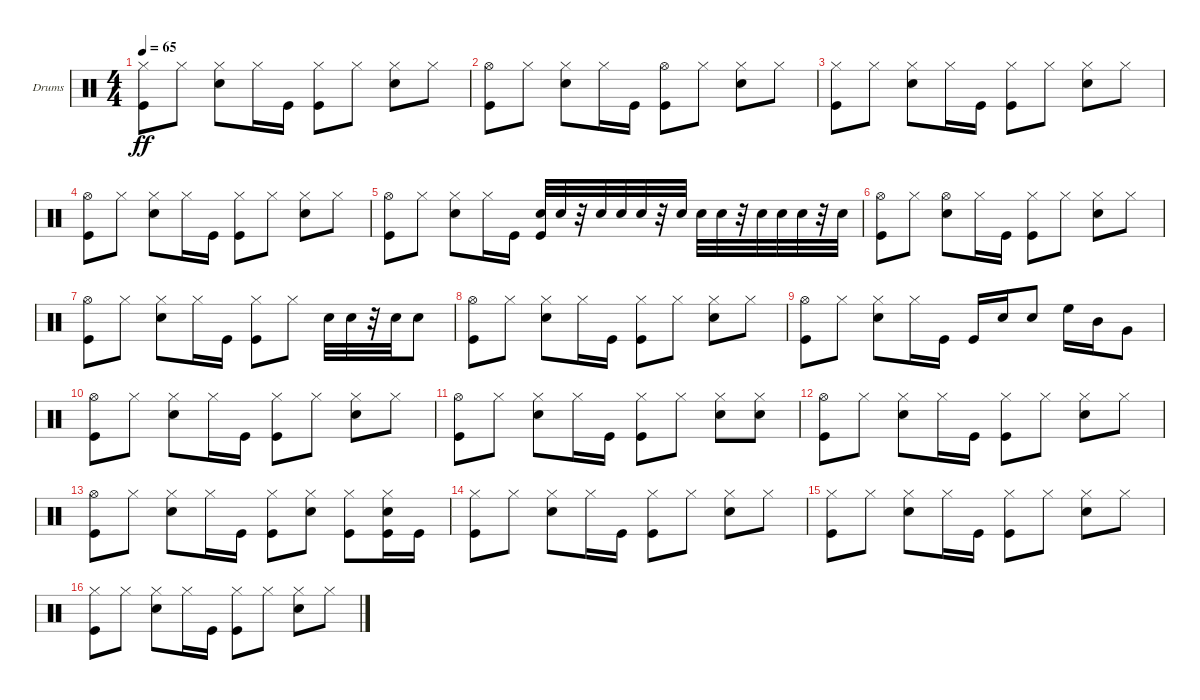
\bracketExtendMode groupsimilarinstruments
\firstSystemTrackNameOrientation horizontal
\otherSystemsTrackNameOrientation horizontal
\track ("Drumkit" "Drums") {instrument percussion}
\staff {score}
\articulation defaults
\ts (4 4)
\tempo 65
\clef neutral
\scale
0.333333
\ks c
("Hi-Hat (closed)" "Kick (hit)").8{dy ff} "Hi-Hat (closed)".8 ("Snare (hit) 2" "Hi-Hat (closed)").8 "Hi-Hat (closed)".16 "Kick (hit)".16 ("Hi-Hat (closed)" "Kick (hit)").8 "Hi-Hat (closed)".8 ("Hi-Hat (closed)" "Snare (hit) 2").8 "Hi-Hat (closed)".8 |
\scale
0.333333 ("Hi-Hat (open)" "Kick (hit)").8 "Hi-Hat (closed)".8 ("Snare (hit) 2" "Hi-Hat (closed)").8 "Hi-Hat (closed)".16 "Kick (hit)".16 ("Hi-Hat (open)" "Kick (hit)").8 "Hi-Hat (closed)".8 ("Hi-Hat (closed)" "Snare (hit) 2").8 "Hi-Hat (closed)".8 |
\scale
0.333333 ("Hi-Hat (closed)" "Kick (hit)").8 "Hi-Hat (closed)".8 ("Snare (hit) 2" "Hi-Hat (closed)").8 "Hi-Hat (closed)".16 "Kick (hit)".16 ("Hi-Hat (closed)" "Kick (hit)").8 "Hi-Hat (closed)".8 ("Hi-Hat (closed)" "Snare (hit) 2").8 "Hi-Hat (closed)".8 |
\scale
0.333333 ("Hi-Hat (open)" "Kick (hit)").8 "Hi-Hat (closed)".8 ("Snare (hit) 2" "Hi-Hat (closed)").8 "Hi-Hat (closed)".16 "Kick (hit)".16 ("Hi-Hat (closed)" "Kick (hit)").8 "Hi-Hat (closed)".8 ("Hi-Hat (closed)" "Snare (hit) 2").8 "Hi-Hat (closed)".8 |
\scale
0.333333 ("Hi-Hat (open)" "Kick (hit)").8 "Hi-Hat (closed)".8 ("Snare (hit) 2" "Hi-Hat (closed)").8 "Hi-Hat (closed)".16 "Kick (hit)".16 ("Snare (hit) 2" "Kick (hit)").32 "Snare (hit) 2".32 r.32 "Snare (hit) 2".32 "Snare (hit) 2".32 "Snare (hit) 2".32 r.32 "Snare (hit) 2".32 "Snare (hit) 2".32 "Snare (hit) 2".32 r.32 "Snare (hit) 2".32 "Snare (hit) 2".32 "Snare (hit) 2".32 r.32 "Snare (hit) 2".32 |
\scale
0.333333 ("Hi-Hat (open)" "Kick (hit)").8 "Hi-Hat (closed)".8 ("Hi-Hat (open)" "Snare (hit) 2").8 "Hi-Hat (closed)".16 "Kick (hit)".16 ("Hi-Hat (closed)" "Kick (hit)").8 "Hi-Hat (closed)".8 ("Hi-Hat (closed)" "Snare (hit) 2").8 "Hi-Hat (closed)".8 |
\scale
0.333333 ("Hi-Hat (open)" "Kick (hit)").8 "Hi-Hat (closed)".8 ("Snare (hit) 2" "Hi-Hat (closed)").8 "Hi-Hat (closed)".16 "Kick (hit)".16 ("Hi-Hat (closed)" "Kick (hit)").8 "Hi-Hat (closed)".8 "Snare (hit) 2".32 "Snare (hit) 2".32 r.32 "Snare (hit) 2".32 "Snare (hit) 2".8 |
\scale
0.333333 ("Hi-Hat (open)" "Kick (hit)").8 "Hi-Hat (closed)".8 ("Snare (hit) 2" "Hi-Hat (closed)").8 "Hi-Hat (closed)".16 "Kick (hit)".16 ("Hi-Hat (closed)" "Kick (hit)").8 "Hi-Hat (closed)".8 ("Hi-Hat (closed)" "Snare (hit) 2").8 "Hi-Hat (closed)".8 |
\scale
0.333333 ("Hi-Hat (open)" "Kick (hit)").8 "Hi-Hat (closed)".8 ("Snare (hit) 2" "Hi-Hat (closed)").8 "Hi-Hat (closed)".16 "Kick (hit)".16 "Kick (hit)".16 "Snare (hit) 2".16 "Snare (hit) 2".8 "High Floor Tom (hit)".16 "Mid Tom (hit)".16 "Very Low Tom (hit)".8 |
\scale
0.333333 ("Hi-Hat (open)" "Kick (hit)").8 "Hi-Hat (closed)".8 ("Snare (hit) 2" "Hi-Hat (closed)").8 "Hi-Hat (closed)".16 "Kick (hit)".16 ("Hi-Hat (closed)" "Kick (hit)").8 "Hi-Hat (closed)".8 ("Hi-Hat (closed)" "Snare (hit) 2").8 "Hi-Hat (closed)".8 |
\scale
0.333333 ("Hi-Hat (open)" "Kick (hit)").8 "Hi-Hat (closed)".8 ("Snare (hit) 2" "Hi-Hat (closed)").8 "Hi-Hat (closed)".16 "Kick (hit)".16 ("Hi-Hat (closed)" "Kick (hit)").8 "Hi-Hat (closed)".8 ("Hi-Hat (closed)" "Snare (hit) 2").8 ("Snare (hit) 2" "Hi-Hat (closed)").8 |
\scale
0.333333 ("Hi-Hat (open)" "Kick (hit)").8 "Hi-Hat (closed)".8 ("Snare (hit) 2" "Hi-Hat (closed)").8 "Hi-Hat (closed)".16 "Kick (hit)".16 ("Hi-Hat (closed)" "Kick (hit)").8 "Hi-Hat (closed)".8 ("Hi-Hat (closed)" "Snare (hit) 2").8 "Hi-Hat (closed)".8 |
\scale
0.333333 ("Hi-Hat (open)" "Kick (hit)").8 "Hi-Hat (closed)".8 ("Snare (hit) 2" "Hi-Hat (closed)").8 "Hi-Hat (closed)".16 "Kick (hit)".16 ("Hi-Hat (closed)" "Kick (hit)").8 ("Snare (hit) 2" "Hi-Hat (closed)").8 ("Kick (hit)" "Hi-Hat (closed)").8 ("Kick (hit)" "Snare (hit) 2" "Hi-Hat (closed)").16 "Kick (hit)".16 |
\scale
0.333333 ("Hi-Hat (closed)" "Kick (hit)").8 "Hi-Hat (closed)".8 ("Snare (hit) 2" "Hi-Hat (closed)").8 "Hi-Hat (closed)".16 "Kick (hit)".16 ("Hi-Hat (closed)" "Kick (hit)").8 "Hi-Hat (closed)".8 ("Hi-Hat (closed)" "Snare (hit) 2").8 "Hi-Hat (closed)".8 |
\scale
0.333333 ("Hi-Hat (closed)" "Kick (hit)").8 "Hi-Hat (closed)".8 ("Snare (hit) 2" "Hi-Hat (closed)").8 "Hi-Hat (closed)".16 "Kick (hit)".16 ("Hi-Hat (closed)" "Kick (hit)").8 "Hi-Hat (closed)".8 ("Hi-Hat (closed)" "Snare (hit) 2").8 "Hi-Hat (closed)".8 |
\scale
0.333333 ("Hi-Hat (closed)" "Kick (hit)").8 "Hi-Hat (closed)".8 ("Snare (hit) 2" "Hi-Hat (closed)").8 "Hi-Hat (closed)".16 "Kick (hit)".16 ("Hi-Hat (closed)" "Kick (hit)").8 "Hi-Hat (closed)".8 ("Hi-Hat (closed)" "Snare (hit) 2").8 "Hi-Hat (closed)".8
